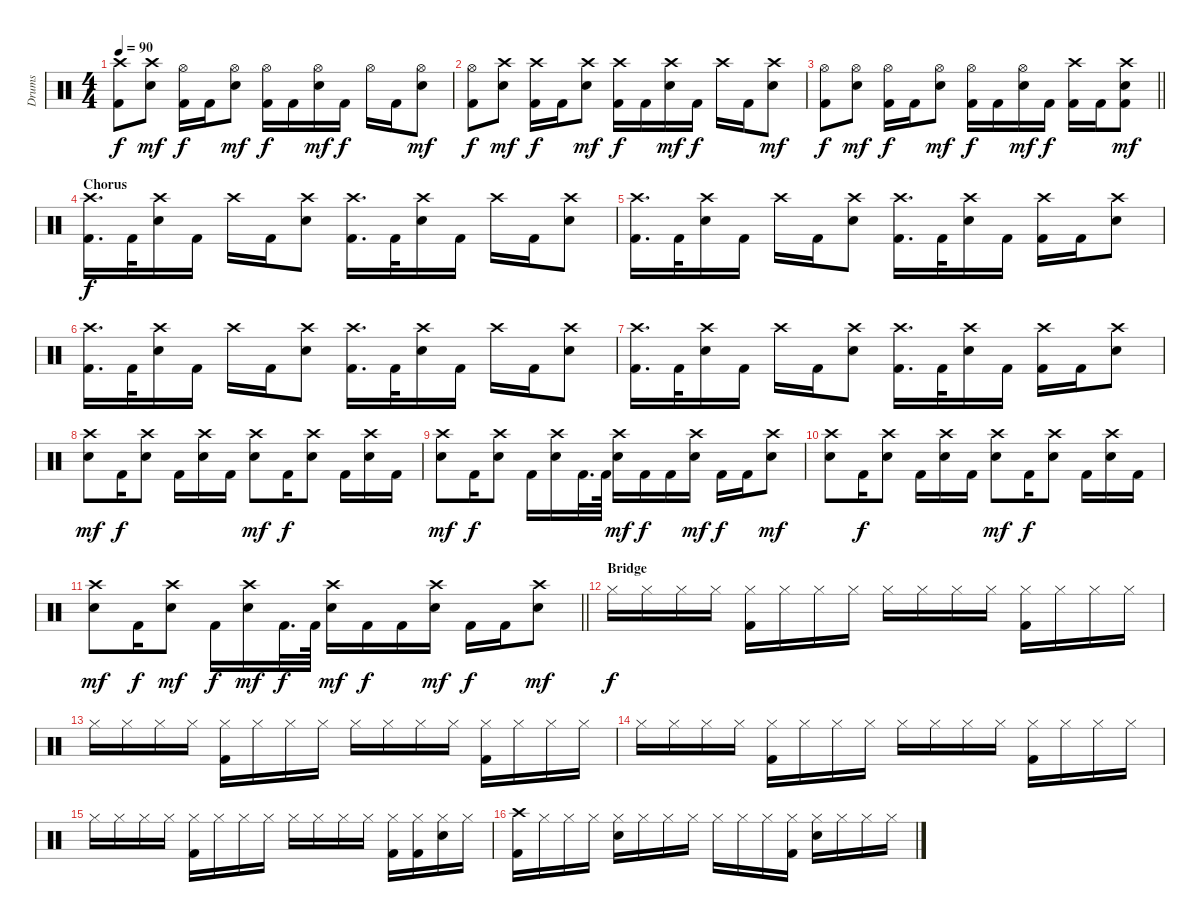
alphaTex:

\track ("Drums" "Drums") {instrument percussion}
\staff {score}
\articulation defaults
\ts (4 4)
\tempo 90
\clef neutral
\ks c
("Crash high (hit)" "Kick (hit) 2").8{dy f} ("Crash high (hit)" "Snare (hit) 2").8{dy mf} ("Hi-Hat (open)" "Kick (hit) 2").16{dy f} "Kick (hit) 2".16 ("Hi-Hat (open)" "Snare (hit) 2").8{dy mf} ("Hi-Hat (open)" "Kick (hit) 2").16{dy f} "Kick (hit) 2".16 ("Hi-Hat (open)" "Snare (hit) 2").16{dy mf} "Kick (hit) 2".16{dy f} "Hi-Hat (open)".16 "Kick (hit) 2".16 ("Hi-Hat (open)" "Snare (hit) 2").8{dy mf} |
("Hi-Hat (open)" "Kick (hit) 2").8{dy f} ("Crash high (hit)" "Snare (hit) 2").8{dy mf} ("Crash high (hit)" "Kick (hit) 2").16{dy f} "Kick (hit) 2".16 ("Crash high (hit)" "Snare (hit) 2").8{dy mf} ("Crash high (hit)" "Kick (hit) 2").16{dy f} "Kick (hit) 2".16 ("Crash high (hit)" "Snare (hit) 2").16{dy mf} "Kick (hit) 2".16{dy f} "Crash high (hit)".16 "Kick (hit) 2".16 ("Crash high (hit)" "Snare (hit) 2").8{dy mf} |
\barLineRight lightlight
("Hi-Hat (open)" "Kick (hit) 2").8{dy f} ("Hi-Hat (open)" "Snare (hit) 2").8{dy mf} ("Hi-Hat (open)" "Kick (hit) 2").16{dy f} "Kick (hit) 2".16 ("Hi-Hat (open)" "Snare (hit) 2").8{dy mf} ("Hi-Hat (open)" "Kick (hit) 2").16{dy f} "Kick (hit) 2".16 ("Hi-Hat (open)" "Snare (hit) 2").16{dy mf} "Kick (hit) 2".16{dy f} ("Crash high (hit)" "Kick (hit) 2").16 "Kick (hit) 2".16 ("Crash high (hit)" "Snare (hit) 2" "Kick (hit) 2").8{dy mf} |
\section ("" "Chorus")
("Crash high (hit)" "Kick (hit) 2").16{d dy f} "Kick (hit) 2".32 ("Crash high (hit)" "Snare (hit) 2").16 "Kick (hit) 2".16 "Crash high (hit)".16 "Kick (hit) 2".16 ("Crash high (hit)" "Snare (hit) 2").8 ("Crash high (hit)" "Kick (hit) 2").16{d} "Kick (hit) 2".32 ("Crash high (hit)" "Snare (hit) 2").16 "Kick (hit) 2".16 "Crash high (hit)".16 "Kick (hit) 2".16 ("Crash high (hit)" "Snare (hit) 2").8 |
("Crash high (hit)" "Kick (hit) 2").16{d} "Kick (hit) 2".32 ("Crash high (hit)" "Snare (hit) 2").16 "Kick (hit) 2".16 "Crash high (hit)".16 "Kick (hit) 2".16 ("Crash high (hit)" "Snare (hit) 2").8 ("Crash high (hit)" "Kick (hit) 2").16{d} "Kick (hit) 2".32 ("Crash high (hit)" "Snare (hit) 2").16 "Kick (hit) 2".16 ("Crash high (hit)" "Kick (hit) 2").16 "Kick (hit) 2".16 ("Crash high (hit)" "Snare (hit) 2").8 |
("Crash high (hit)" "Kick (hit) 2").16{d} "Kick (hit) 2".32 ("Crash high (hit)" "Snare (hit) 2").16 "Kick (hit) 2".16 "Crash high (hit)".16 "Kick (hit) 2".16 ("Crash high (hit)" "Snare (hit) 2").8 ("Crash high (hit)" "Kick (hit) 2").16{d} "Kick (hit) 2".32 ("Crash high (hit)" "Snare (hit) 2").16 "Kick (hit) 2".16 "Crash high (hit)".16 "Kick (hit) 2".16 ("Crash high (hit)" "Snare (hit) 2").8 |
("Crash high (hit)" "Kick (hit) 2").16{d} "Kick (hit) 2".32 ("Crash high (hit)" "Snare (hit) 2").16 "Kick (hit) 2".16 "Crash high (hit)".16 "Kick (hit) 2".16 ("Crash high (hit)" "Snare (hit) 2").8 ("Crash high (hit)" "Kick (hit) 2").16{d} "Kick (hit) 2".32 ("Crash high (hit)" "Snare (hit) 2").16 "Kick (hit) 2".16 ("Crash high (hit)" "Kick (hit) 2").16 "Kick (hit) 2".16 ("Crash high (hit)" "Snare (hit) 2").8 |
("Crash high (hit)" "Snare (hit) 2").8{dy mf} "Kick (hit) 2".16{dy f} ("Crash high (hit)" "Snare (hit) 2").8 "Kick (hit) 2".16 ("Crash high (hit)" "Snare (hit) 2").16 "Kick (hit) 2".16 ("Crash high (hit)" "Snare (hit) 2").8{dy mf} "Kick (hit) 2".16{dy f} ("Crash high (hit)" "Snare (hit) 2").8 "Kick (hit) 2".16 ("Crash high (hit)" "Snare (hit) 2").16 "Kick (hit) 2".16 |
("Crash high (hit)" "Snare (hit) 2").8{dy mf} "Kick (hit) 2".16{dy f} ("Crash high (hit)" "Snare (hit) 2").8 "Kick (hit) 2".16 ("Crash high (hit)" "Snare (hit) 2").16 "Kick (hit) 2".32{d} "Kick (hit) 2".64 ("Crash high (hit)" "Snare (hit) 2").16{dy mf} "Kick (hit) 2".16{dy f} "Kick (hit) 2".16 ("Crash high (hit)" "Snare (hit) 2").16{dy mf} "Kick (hit) 2".16{dy f} "Kick (hit) 2".16 ("Crash high (hit)" "Snare (hit) 2").8{dy mf} |
("Crash high (hit)" "Snare (hit) 2").8 "Kick (hit) 2".16{dy f} ("Crash high (hit)" "Snare (hit) 2").8 "Kick (hit) 2".16 ("Crash high (hit)" "Snare (hit) 2").16 "Kick (hit) 2".16 ("Crash high (hit)" "Snare (hit) 2").8{dy mf} "Kick (hit) 2".16{dy f} ("Crash high (hit)" "Snare (hit) 2").8 "Kick (hit) 2".16 ("Crash high (hit)" "Snare (hit) 2").16 "Kick (hit) 2".16 |
\barLineRight lightlight
("Crash high (hit)" "Snare (hit) 2").8{dy mf} "Kick (hit) 2".16{dy f} ("Crash high (hit)" "Snare (hit) 2").8{dy mf} "Kick (hit) 2".16{dy f} ("Crash high (hit)" "Snare (hit) 2").16{dy mf} "Kick (hit) 2".32{d dy f} "Kick (hit) 2".64 ("Crash high (hit)" "Snare (hit) 2").16{dy mf} "Kick (hit) 2".16{dy f} "Kick (hit) 2".16 ("Crash high (hit)" "Snare (hit) 2").16{dy mf} "Kick (hit) 2".16{dy f} "Kick (hit) 2".16 ("Crash high (hit)" "Snare (hit) 2").8{dy mf} |
\section ("" "Bridge")
"Hi-Hat (closed)".16{dy f} "Hi-Hat (closed)".16 "Hi-Hat (closed)".16 "Hi-Hat (closed)".16 ("Hi-Hat (closed)" "Kick (hit) 2").16 "Hi-Hat (closed)".16 "Hi-Hat (closed)".16 "Hi-Hat (closed)".16 "Hi-Hat (closed)".16 "Hi-Hat (closed)".16 "Hi-Hat (closed)".16 "Hi-Hat (closed)".16 ("Hi-Hat (closed)" "Kick (hit) 2").16 "Hi-Hat (closed)".16 "Hi-Hat (closed)".16 "Hi-Hat (closed)".16 |
"Hi-Hat (closed)".16 "Hi-Hat (closed)".16 "Hi-Hat (closed)".16 "Hi-Hat (closed)".16 ("Hi-Hat (closed)" "Kick (hit) 2").16 "Hi-Hat (closed)".16 "Hi-Hat (closed)".16 "Hi-Hat (closed)".16 "Hi-Hat (closed)".16 "Hi-Hat (closed)".16 "Hi-Hat (closed)".16 "Hi-Hat (closed)".16 ("Hi-Hat (closed)" "Kick (hit) 2").16 "Hi-Hat (closed)".16 "Hi-Hat (closed)".16 "Hi-Hat (closed)".16 |
"Hi-Hat (closed)".16 "Hi-Hat (closed)".16 "Hi-Hat (closed)".16 "Hi-Hat (closed)".16 ("Hi-Hat (closed)" "Kick (hit) 2").16 "Hi-Hat (closed)".16 "Hi-Hat (closed)".16 "Hi-Hat (closed)".16 "Hi-Hat (closed)".16 "Hi-Hat (closed)".16 "Hi-Hat (closed)".16 "Hi-Hat (closed)".16 ("Hi-Hat (closed)" "Kick (hit) 2").16 "Hi-Hat (closed)".16 "Hi-Hat (closed)".16 "Hi-Hat (closed)".16 |
"Hi-Hat (closed)".16 "Hi-Hat (closed)".16 "Hi-Hat (closed)".16 "Hi-Hat (closed)".16 ("Hi-Hat (closed)" "Kick (hit) 2").16 "Hi-Hat (closed)".16 "Hi-Hat (closed)".16 "Hi-Hat (closed)".16 "Hi-Hat (closed)".16 "Hi-Hat (closed)".16 "Hi-Hat (closed)".16 "Hi-Hat (closed)".16 ("Hi-Hat (closed)" "Kick (hit) 2").16 ("Hi-Hat (closed)" "Kick (hit) 2").16 ("Hi-Hat (closed)" "Snare (hit) 2").16 "Hi-Hat (closed)".16 |
("Crash high (hit)" "Kick (hit) 2").16 "Hi-Hat (closed)".16 "Hi-Hat (closed)".16 "Hi-Hat (closed)".16 ("Hi-Hat (closed)" "Snare (hit) 2").16 "Hi-Hat (closed)".16 "Hi-Hat (closed)".16 "Hi-Hat (closed)".16 "Hi-Hat (closed)".16 "Hi-Hat (closed)".16 "Hi-Hat (closed)".16 ("Hi-Hat (closed)" "Kick (hit) 2").16 ("Hi-Hat (closed)" "Snare (hit) 2").16 "Hi-Hat (closed)".16 "Hi-Hat (closed)".16 "Hi-Hat (closed)".16
